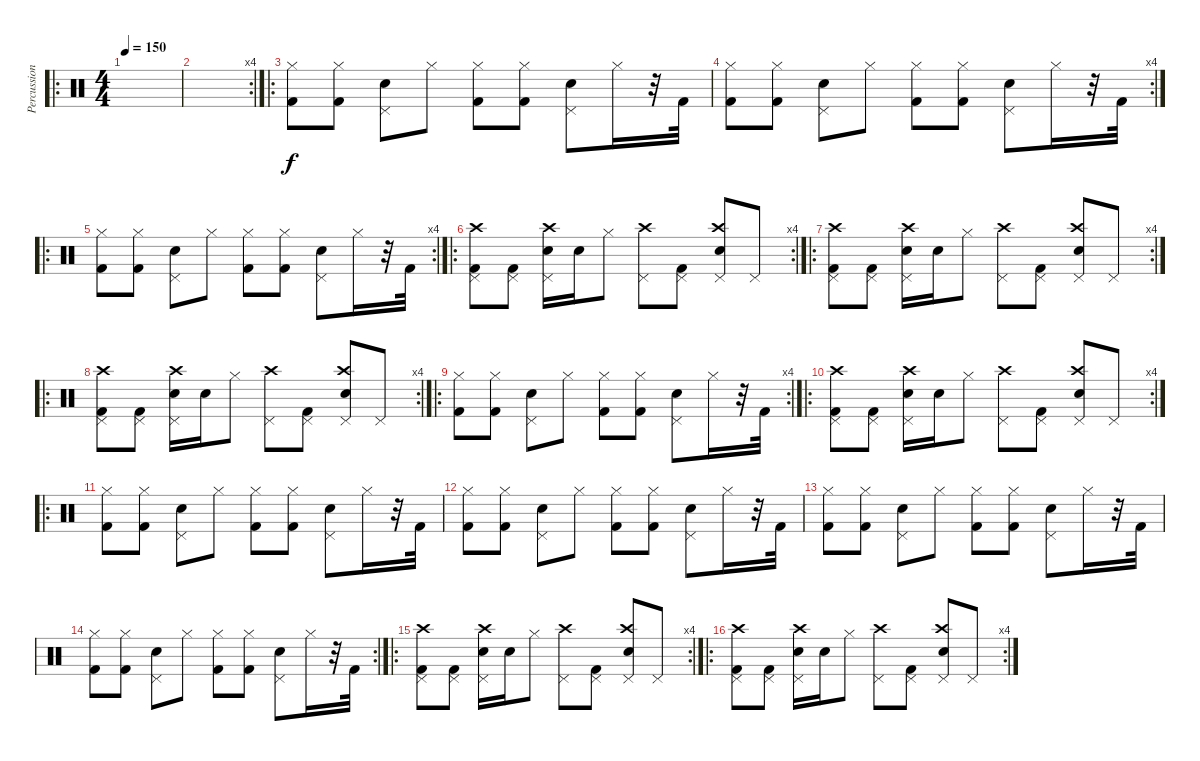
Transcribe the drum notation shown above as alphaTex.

\track ("Percussions" "Percussion") {instrument percussion}
\staff {score}
\articulation defaults
\ro
\ts (4 4)
\tempo 150
\clef neutral
\ks c
|
\rc 4
|
\ro
("Hi-Hat (closed)" "Kick (hit) 2").8 ("Hi-Hat (closed)" "Kick (hit) 2").8 ("Pedal Hi-Hat (hit)" "Snare (hit) 2").8 "Hi-Hat (closed)".8 ("Hi-Hat (closed)" "Kick (hit) 2").8 ("Hi-Hat (closed)" "Kick (hit) 2").8 ("Pedal Hi-Hat (hit)" "Snare (hit) 2").8 "Hi-Hat (closed)".16 r.32 "Kick (hit) 2".32 |
\rc 4
("Hi-Hat (closed)" "Kick (hit) 2").8 ("Hi-Hat (closed)" "Kick (hit) 2").8 ("Pedal Hi-Hat (hit)" "Snare (hit) 2").8 "Hi-Hat (closed)".8 ("Hi-Hat (closed)" "Kick (hit) 2").8 ("Hi-Hat (closed)" "Kick (hit) 2").8 ("Pedal Hi-Hat (hit)" "Snare (hit) 2").8 "Hi-Hat (closed)".16 r.32 "Kick (hit) 2".32 |
\ro
\rc 4
("Hi-Hat (closed)" "Kick (hit) 2").8 ("Hi-Hat (closed)" "Kick (hit) 2").8 ("Pedal Hi-Hat (hit)" "Snare (hit) 2").8 "Hi-Hat (closed)".8 ("Hi-Hat (closed)" "Kick (hit) 2").8 ("Hi-Hat (closed)" "Kick (hit) 2").8 ("Pedal Hi-Hat (hit)" "Snare (hit) 2").8 "Hi-Hat (closed)".16 r.32 "Kick (hit) 2".32 |
\ro
\rc 4
("Pedal Hi-Hat (hit)" "Kick (hit) 2" "Crash high (hit)").8 ("Pedal Hi-Hat (hit)" "Kick (hit) 2").8 ("Pedal Hi-Hat (hit)" "Electric Snare (hit)" "Crash high (hit)").16 "Electric Snare (hit)".16 "Hi-Hat (closed)".8 ("Pedal Hi-Hat (hit)" "Crash high (hit)").8 ("Pedal Hi-Hat (hit)" "Kick (hit) 2").8 ("Pedal Hi-Hat (hit)" "Electric Snare (hit)" "Crash high (hit)").8 "Pedal Hi-Hat (hit)".8 |
\ro
\rc 4
("Pedal Hi-Hat (hit)" "Kick (hit) 2" "Crash high (hit)").8 ("Pedal Hi-Hat (hit)" "Kick (hit) 2").8 ("Pedal Hi-Hat (hit)" "Electric Snare (hit)" "Crash high (hit)").16 "Electric Snare (hit)".16 "Hi-Hat (closed)".8 ("Pedal Hi-Hat (hit)" "Crash high (hit)").8 ("Pedal Hi-Hat (hit)" "Kick (hit) 2").8 ("Pedal Hi-Hat (hit)" "Electric Snare (hit)" "Crash high (hit)").8 "Pedal Hi-Hat (hit)".8 |
\ro
\rc 4
("Pedal Hi-Hat (hit)" "Kick (hit) 2" "Crash high (hit)").8 ("Pedal Hi-Hat (hit)" "Kick (hit) 2").8 ("Pedal Hi-Hat (hit)" "Electric Snare (hit)" "Crash high (hit)").16 "Electric Snare (hit)".16 "Hi-Hat (closed)".8 ("Pedal Hi-Hat (hit)" "Crash high (hit)").8 ("Pedal Hi-Hat (hit)" "Kick (hit) 2").8 ("Pedal Hi-Hat (hit)" "Electric Snare (hit)" "Crash high (hit)").8 "Pedal Hi-Hat (hit)".8 |
\ro
\rc 4
("Hi-Hat (closed)" "Kick (hit) 2").8 ("Hi-Hat (closed)" "Kick (hit) 2").8 ("Pedal Hi-Hat (hit)" "Snare (hit) 2").8 "Hi-Hat (closed)".8 ("Hi-Hat (closed)" "Kick (hit) 2").8 ("Hi-Hat (closed)" "Kick (hit) 2").8 ("Pedal Hi-Hat (hit)" "Snare (hit) 2").8 "Hi-Hat (closed)".16 r.32 "Kick (hit) 2".32 |
\ro
\rc 4
("Pedal Hi-Hat (hit)" "Kick (hit) 2" "Crash high (hit)").8 ("Pedal Hi-Hat (hit)" "Kick (hit) 2").8 ("Pedal Hi-Hat (hit)" "Electric Snare (hit)" "Crash high (hit)").16 "Electric Snare (hit)".16 "Hi-Hat (closed)".8 ("Pedal Hi-Hat (hit)" "Crash high (hit)").8 ("Pedal Hi-Hat (hit)" "Kick (hit) 2").8 ("Pedal Hi-Hat (hit)" "Electric Snare (hit)" "Crash high (hit)").8 "Pedal Hi-Hat (hit)".8 |
\ro
("Hi-Hat (closed)" "Kick (hit) 2").8 ("Hi-Hat (closed)" "Kick (hit) 2").8 ("Pedal Hi-Hat (hit)" "Snare (hit) 2").8 "Hi-Hat (closed)".8 ("Hi-Hat (closed)" "Kick (hit) 2").8 ("Hi-Hat (closed)" "Kick (hit) 2").8 ("Pedal Hi-Hat (hit)" "Snare (hit) 2").8 "Hi-Hat (closed)".16 r.32 "Kick (hit) 2".32 |
("Hi-Hat (closed)" "Kick (hit) 2").8 ("Hi-Hat (closed)" "Kick (hit) 2").8 ("Pedal Hi-Hat (hit)" "Snare (hit) 2").8 "Hi-Hat (closed)".8 ("Hi-Hat (closed)" "Kick (hit) 2").8 ("Hi-Hat (closed)" "Kick (hit) 2").8 ("Pedal Hi-Hat (hit)" "Snare (hit) 2").8 "Hi-Hat (closed)".16 r.32 "Kick (hit) 2".32 |
("Hi-Hat (closed)" "Kick (hit) 2").8 ("Hi-Hat (closed)" "Kick (hit) 2").8 ("Pedal Hi-Hat (hit)" "Snare (hit) 2").8 "Hi-Hat (closed)".8 ("Hi-Hat (closed)" "Kick (hit) 2").8 ("Hi-Hat (closed)" "Kick (hit) 2").8 ("Pedal Hi-Hat (hit)" "Snare (hit) 2").8 "Hi-Hat (closed)".16 r.32 "Kick (hit) 2".32 |
\rc 2
("Hi-Hat (closed)" "Kick (hit) 2").8 ("Hi-Hat (closed)" "Kick (hit) 2").8 ("Pedal Hi-Hat (hit)" "Snare (hit) 2").8 "Hi-Hat (closed)".8 ("Hi-Hat (closed)" "Kick (hit) 2").8 ("Hi-Hat (closed)" "Kick (hit) 2").8 ("Pedal Hi-Hat (hit)" "Snare (hit) 2").8 "Hi-Hat (closed)".16 r.32 "Kick (hit) 2".32 |
\ro
\rc 4
("Pedal Hi-Hat (hit)" "Kick (hit) 2" "Crash high (hit)").8 ("Pedal Hi-Hat (hit)" "Kick (hit) 2").8 ("Pedal Hi-Hat (hit)" "Electric Snare (hit)" "Crash high (hit)").16 "Electric Snare (hit)".16 "Hi-Hat (closed)".8 ("Pedal Hi-Hat (hit)" "Crash high (hit)").8 ("Pedal Hi-Hat (hit)" "Kick (hit) 2").8 ("Pedal Hi-Hat (hit)" "Electric Snare (hit)" "Crash high (hit)").8 "Pedal Hi-Hat (hit)".8 |
\ro
\rc 4
("Pedal Hi-Hat (hit)" "Kick (hit) 2" "Crash high (hit)").8 ("Pedal Hi-Hat (hit)" "Kick (hit) 2").8 ("Pedal Hi-Hat (hit)" "Electric Snare (hit)" "Crash high (hit)").16 "Electric Snare (hit)".16 "Hi-Hat (closed)".8 ("Pedal Hi-Hat (hit)" "Crash high (hit)").8 ("Pedal Hi-Hat (hit)" "Kick (hit) 2").8 ("Pedal Hi-Hat (hit)" "Electric Snare (hit)" "Crash high (hit)").8 "Pedal Hi-Hat (hit)".8
